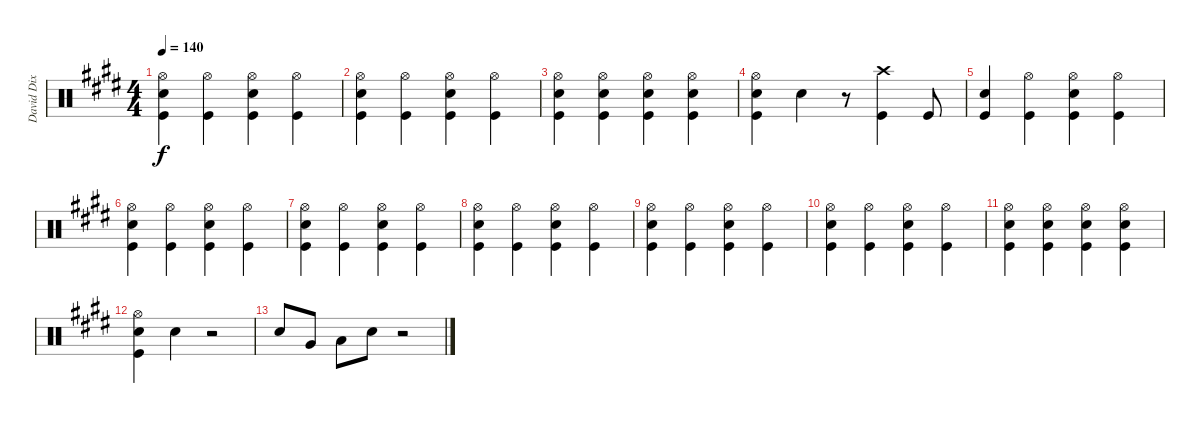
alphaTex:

\track ("David Dix Drums" "David Dix ") {instrument percussion}
\staff {score}
\articulation defaults
\ts (4 4)
\tempo 140
\clef neutral
\ks e
("Hi-Hat (open)" "Snare (hit) 2" "Kick (hit)").4{dy f} ("Hi-Hat (open)" "Kick (hit)").4 ("Hi-Hat (open)" "Snare (hit) 2" "Kick (hit)").4 ("Hi-Hat (open)" "Kick (hit)").4 |
("Hi-Hat (open)" "Snare (hit) 2" "Kick (hit)").4 ("Hi-Hat (open)" "Kick (hit)").4 ("Hi-Hat (open)" "Snare (hit) 2" "Kick (hit)").4 ("Hi-Hat (open)" "Kick (hit)").4 |
("Hi-Hat (open)" "Snare (hit) 2" "Kick (hit)").4 ("Hi-Hat (open)" "Snare (hit) 2" "Kick (hit)").4 ("Hi-Hat (open)" "Snare (hit) 2" "Kick (hit)").4 ("Hi-Hat (open)" "Snare (hit) 2" "Kick (hit)").4 |
("Hi-Hat (open)" "Snare (hit) 2" "Kick (hit)").4 "Snare (hit) 2".4 r.8 ("Crash high (hit)" "Kick (hit)").4 "Kick (hit)".8 |
("Snare (hit) 2" "Kick (hit)").4 ("Hi-Hat (open)" "Kick (hit)").4 ("Hi-Hat (open)" "Snare (hit) 2" "Kick (hit)").4 ("Hi-Hat (open)" "Kick (hit)").4 |
("Hi-Hat (open)" "Snare (hit) 2" "Kick (hit)").4 ("Hi-Hat (open)" "Kick (hit)").4 ("Hi-Hat (open)" "Snare (hit) 2" "Kick (hit)").4 ("Hi-Hat (open)" "Kick (hit)").4 |
("Hi-Hat (open)" "Snare (hit) 2" "Kick (hit)").4 ("Hi-Hat (open)" "Kick (hit)").4 ("Hi-Hat (open)" "Snare (hit) 2" "Kick (hit)").4 ("Hi-Hat (open)" "Kick (hit)").4 |
("Hi-Hat (open)" "Snare (hit) 2" "Kick (hit)").4 ("Hi-Hat (open)" "Kick (hit)").4 ("Hi-Hat (open)" "Snare (hit) 2" "Kick (hit)").4 ("Hi-Hat (open)" "Kick (hit)").4 |
("Hi-Hat (open)" "Snare (hit) 2" "Kick (hit)").4 ("Hi-Hat (open)" "Kick (hit)").4 ("Hi-Hat (open)" "Snare (hit) 2" "Kick (hit)").4 ("Hi-Hat (open)" "Kick (hit)").4 |
("Hi-Hat (open)" "Snare (hit) 2" "Kick (hit)").4 ("Hi-Hat (open)" "Kick (hit)").4 ("Hi-Hat (open)" "Snare (hit) 2" "Kick (hit)").4 ("Hi-Hat (open)" "Kick (hit)").4 |
("Hi-Hat (open)" "Snare (hit) 2" "Kick (hit)").4 ("Hi-Hat (open)" "Snare (hit) 2" "Kick (hit)").4 ("Hi-Hat (open)" "Snare (hit) 2" "Kick (hit)").4 ("Hi-Hat (open)" "Snare (hit) 2" "Kick (hit)").4 |
("Hi-Hat (open)" "Snare (hit) 2" "Kick (hit)").4 "Snare (hit) 2".4 r.2 |
"Snare (hit) 2".8 "Very Low Tom (hit)".8 "Low Floor Tom (hit)".8 "Snare (hit) 2".8 r.2
